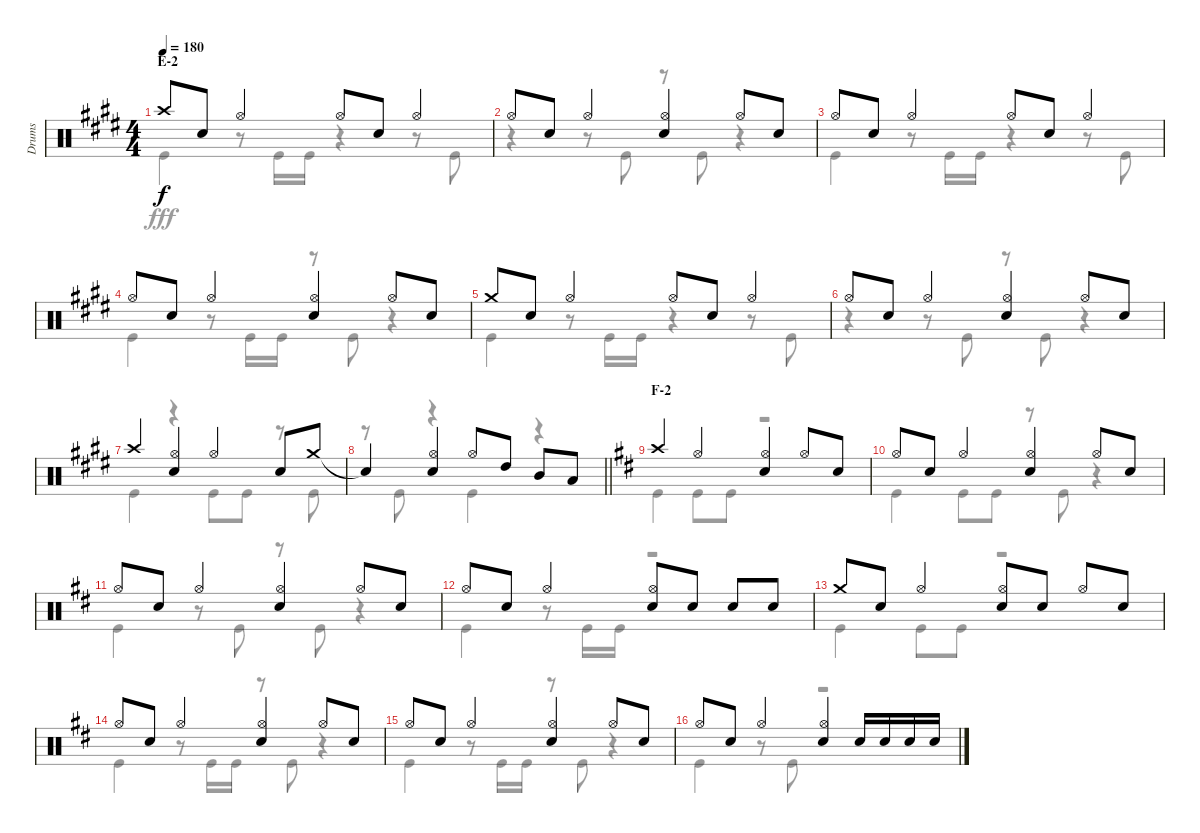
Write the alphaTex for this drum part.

\track ("Drums" "Drums") {instrument percussion}
\staff {score}
\articulation defaults
\voice
\ts (4 4)
\section ("" "E-2")
\tempo 180
\clef neutral
\ks e "Crash high (hit)".8{dy f} "Snare (hit) 2".8 "Hi-Hat (open)".4 "Hi-Hat (open)".8 "Snare (hit) 2".8 "Hi-Hat (open)".4
|
"Hi-Hat (open)".8 "Snare (hit) 2".8 "Hi-Hat (open)".4 ("Hi-Hat (open)" "Snare (hit) 2").4 "Hi-Hat (open)".8 "Snare (hit) 2".8 |
"Hi-Hat (open)".8 "Snare (hit) 2".8 "Hi-Hat (open)".4 "Hi-Hat (open)".8 "Snare (hit) 2".8 "Hi-Hat (open)".4 |
"Hi-Hat (open)".8 "Snare (hit) 2".8 "Hi-Hat (open)".4 ("Hi-Hat (open)" "Snare (hit) 2").4 "Hi-Hat (open)".8 "Snare (hit) 2".8 |
"Crash medium (hit)".8 "Snare (hit) 2".8 "Hi-Hat (open)".4 "Hi-Hat (open)".8 "Snare (hit) 2".8 "Hi-Hat (open)".4 |
"Hi-Hat (open)".8 "Snare (hit) 2".8 "Hi-Hat (open)".4 ("Hi-Hat (open)" "Snare (hit) 2").4 "Hi-Hat (open)".8 "Snare (hit) 2".8 |
"Crash high (hit)".4 ("Hi-Hat (open)" "Snare (hit) 2").4 "Hi-Hat (open)".4 "Snare (hit) 2".8 "Crash medium (hit)".8 |
\barLineRight lightlight "Snare (hit)"{t}.4
("Hi-Hat (open)" "Snare (hit) 2").4 "Hi-Hat (open)".8 "High Tom (hit)".8 "Mid Tom (hit)".8 "Low Tom (hit)".8 |
\section ("" "F-2")
\ks d "Crash high (hit)".4 "Hi-Hat (open)".4
("Hi-Hat (open)" "Snare (hit) 2").4 "Hi-Hat (open)".8 "Snare (hit) 2".8 |
"Hi-Hat (open)".8 "Snare (hit) 2".8 "Hi-Hat (open)".4 ("Hi-Hat (open)" "Snare (hit) 2").4 "Hi-Hat (open)".8 "Snare (hit) 2".8 |
"Hi-Hat (open)".8 "Snare (hit) 2".8 "Hi-Hat (open)".4 ("Hi-Hat (open)" "Snare (hit) 2").4 "Hi-Hat (open)".8 "Snare (hit) 2".8 |
"Hi-Hat (open)".8 "Snare (hit) 2".8 "Hi-Hat (open)".4 ("Hi-Hat (open)" "Snare (hit) 2").8 "Snare (hit) 2".8 "Snare (hit) 2".8 "Snare (hit) 2".8 |
"Crash medium (hit)".8 "Snare (hit) 2".8 "Hi-Hat (open)".4 ("Hi-Hat (open)" "Snare (hit) 2").8 "Snare (hit) 2".8 "Hi-Hat (open)".8 "Snare (hit) 2".8 |
"Hi-Hat (open)".8 "Snare (hit) 2".8 "Hi-Hat (open)".4 ("Hi-Hat (open)" "Snare (hit) 2").4 "Hi-Hat (open)".8 "Snare (hit) 2".8 |
"Hi-Hat (open)".8 "Snare (hit) 2".8 "Hi-Hat (open)".4 ("Hi-Hat (open)" "Snare (hit) 2").4 "Hi-Hat (open)".8 "Snare (hit) 2".8 |
"Hi-Hat (open)".8 "Snare (hit) 2".8 "Hi-Hat (open)".4 ("Hi-Hat (open)" "Snare (hit) 2").4 "Snare (hit) 2".16 "Snare (hit) 2".16 "Snare (hit) 2".16 "Snare (hit) 2".16
\voice
\clef neutral
\ottava regular
\simile none
\ks e "Kick (hit)".4{dy fff}
r.8 "Kick (hit)".16 "Kick (hit)".16 r.4 r.8 "Kick (hit)".8 |
r.4 r.8 "Kick (hit)".8 r.8 "Kick (hit)".8 r.4 |
"Kick (hit)".4 r.8 "Kick (hit)".16 "Kick (hit)".16 r.4 r.8 "Kick (hit)".8 |
"Kick (hit)".4 r.8 "Kick (hit)".16 "Kick (hit)".16 r.8 "Kick (hit)".8 r.4 |
"Kick (hit)".4 r.8 "Kick (hit)".16 "Kick (hit)".16 r.4 r.8 "Kick (hit)".8 |
r.4 r.8 "Kick (hit)".8 r.8 "Kick (hit)".8 r.4 |
"Kick (hit)".4 r.4 "Kick (hit)".8 "Kick (hit)".8 r.8 "Kick (hit)".8 |
\barLineRight lightlight
r.8 "Kick (hit)".8 r.4 "Kick (hit)".4 r.4 |
\ks d "Kick (hit)".4 "Kick (hit)".8 "Kick (hit)".8
r.2 |
"Kick (hit)".4 "Kick (hit)".8 "Kick (hit)".8 r.8 "Kick (hit)".8 r.4 |
"Kick (hit)".4 r.8 "Kick (hit)".8 r.8 "Kick (hit)".8 r.4 |
"Kick (hit)".4 r.8 "Kick (hit)".16 "Kick (hit)".16 r.2 |
"Kick (hit)".4 "Kick (hit)".8 "Kick (hit)".8 r.2 |
"Kick (hit)".4 r.8 "Kick (hit)".16 "Kick (hit)".16 r.8 "Kick (hit)".8 r.4 |
"Kick (hit)".4 r.8 "Kick (hit)".16 "Kick (hit)".16 r.8 "Kick (hit)".8 r.4 |
"Kick (hit)".4 r.8 "Kick (hit)".8 r.2
